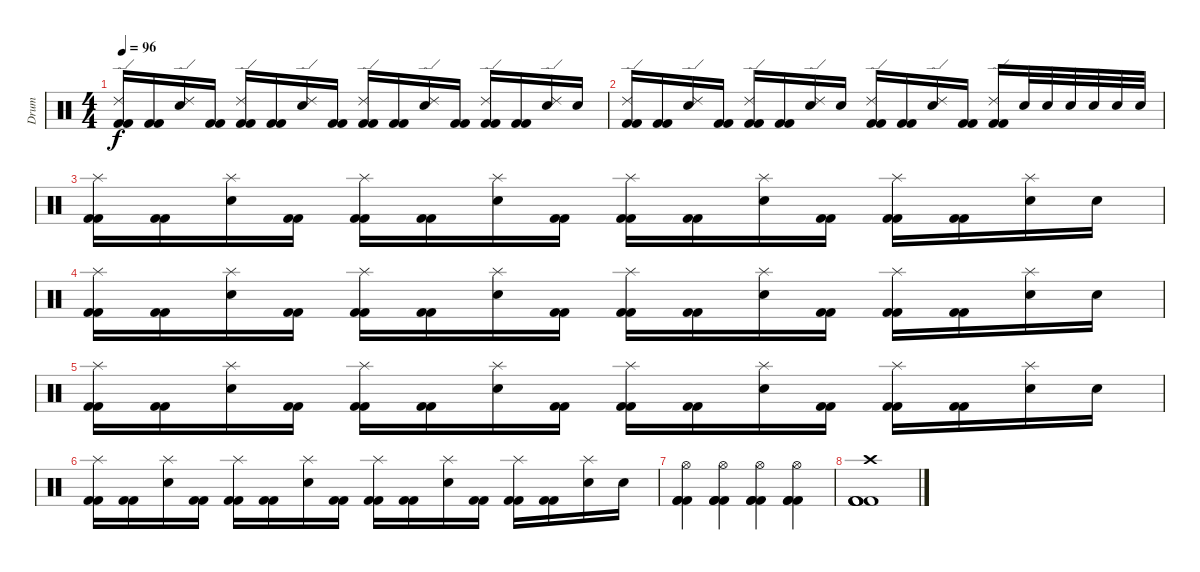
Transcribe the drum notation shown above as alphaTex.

\track ("Drum" "Drum") {instrument percussion}
\staff {score}
\articulation defaults
\ts (4 4)
\tempo 96
\clef neutral
\ks c
("Ride (edge) 2" "Kick (hit) 2" "Kick (hit) 2").16{dy f} ("Kick (hit) 2" "Kick (hit) 2").16 ("Ride (edge) 2" "Snare (hit) 2").16 ("Kick (hit) 2" "Kick (hit) 2").16 ("Ride (edge) 2" "Kick (hit) 2" "Kick (hit) 2").16 ("Kick (hit) 2" "Kick (hit) 2").16 ("Ride (edge) 2" "Snare (hit) 2").16 ("Kick (hit) 2" "Kick (hit) 2").16 ("Ride (edge) 2" "Kick (hit) 2" "Kick (hit) 2").16 ("Kick (hit) 2" "Kick (hit) 2").16 ("Ride (edge) 2" "Snare (hit) 2").16 ("Kick (hit) 2" "Kick (hit) 2").16 ("Ride (edge) 2" "Kick (hit) 2" "Kick (hit) 2").16 ("Kick (hit) 2" "Kick (hit) 2").16 ("Ride (edge) 2" "Snare (hit) 2").16 "Snare (hit) 2".16 |
("Ride (edge) 2" "Kick (hit) 2" "Kick (hit) 2").16 ("Kick (hit) 2" "Kick (hit) 2").16 ("Ride (edge) 2" "Snare (hit) 2").16 ("Kick (hit) 2" "Kick (hit) 2").16 ("Ride (edge) 2" "Kick (hit) 2" "Kick (hit) 2").16 ("Kick (hit) 2" "Kick (hit) 2").16 ("Ride (edge) 2" "Snare (hit) 2").16 "Snare (hit) 2".16 ("Ride (edge) 2" "Kick (hit) 2" "Kick (hit) 2").16 ("Kick (hit) 2" "Kick (hit) 2").16 ("Ride (edge) 2" "Snare (hit) 2").16 ("Kick (hit) 2" "Kick (hit) 2").16 ("Ride (edge) 2" "Kick (hit) 2" "Kick (hit) 2").16 "Snare (hit) 2".32 "Snare (hit) 2".32 "Snare (hit) 2".32 "Snare (hit) 2".32 "Snare (hit) 2".32 "Snare (hit) 2".32 |
("Splash (hit)" "Kick (hit) 2" "Kick (hit) 2").16 ("Kick (hit) 2" "Kick (hit) 2").16 ("Splash (hit)" "Snare (hit) 2").16 ("Kick (hit) 2" "Kick (hit) 2").16 ("Splash (hit)" "Kick (hit) 2" "Kick (hit) 2").16 ("Kick (hit) 2" "Kick (hit) 2").16 ("Splash (hit)" "Snare (hit) 2").16 ("Kick (hit) 2" "Kick (hit) 2").16 ("Splash (hit)" "Kick (hit) 2" "Kick (hit) 2").16 ("Kick (hit) 2" "Kick (hit) 2").16 ("Splash (hit)" "Snare (hit) 2").16 ("Kick (hit) 2" "Kick (hit) 2").16 ("Splash (hit)" "Kick (hit) 2" "Kick (hit) 2").16 ("Kick (hit) 2" "Kick (hit) 2").16 ("Splash (hit)" "Snare (hit) 2").16 "Snare (hit) 2".16 |
("Splash (hit)" "Kick (hit) 2" "Kick (hit) 2").16 ("Kick (hit) 2" "Kick (hit) 2").16 ("Splash (hit)" "Snare (hit) 2").16 ("Kick (hit) 2" "Kick (hit) 2").16 ("Splash (hit)" "Kick (hit) 2" "Kick (hit) 2").16 ("Kick (hit) 2" "Kick (hit) 2").16 ("Splash (hit)" "Snare (hit) 2").16 ("Kick (hit) 2" "Kick (hit) 2").16 ("Splash (hit)" "Kick (hit) 2" "Kick (hit) 2").16 ("Kick (hit) 2" "Kick (hit) 2").16 ("Splash (hit)" "Snare (hit) 2").16 ("Kick (hit) 2" "Kick (hit) 2").16 ("Splash (hit)" "Kick (hit) 2" "Kick (hit) 2").16 ("Kick (hit) 2" "Kick (hit) 2").16 ("Splash (hit)" "Snare (hit) 2").16 "Snare (hit) 2".16 |
("Splash (hit)" "Kick (hit) 2" "Kick (hit) 2").16 ("Kick (hit) 2" "Kick (hit) 2").16 ("Splash (hit)" "Snare (hit) 2").16 ("Kick (hit) 2" "Kick (hit) 2").16 ("Splash (hit)" "Kick (hit) 2" "Kick (hit) 2").16 ("Kick (hit) 2" "Kick (hit) 2").16 ("Splash (hit)" "Snare (hit) 2").16 ("Kick (hit) 2" "Kick (hit) 2").16 ("Splash (hit)" "Kick (hit) 2" "Kick (hit) 2").16 ("Kick (hit) 2" "Kick (hit) 2").16 ("Splash (hit)" "Snare (hit) 2").16 ("Kick (hit) 2" "Kick (hit) 2").16 ("Splash (hit)" "Kick (hit) 2" "Kick (hit) 2").16 ("Kick (hit) 2" "Kick (hit) 2").16 ("Splash (hit)" "Snare (hit) 2").16 "Snare (hit) 2".16 |
("Splash (hit)" "Kick (hit) 2" "Kick (hit) 2").16 ("Kick (hit) 2" "Kick (hit) 2").16 ("Splash (hit)" "Snare (hit) 2").16 ("Kick (hit) 2" "Kick (hit) 2").16 ("Splash (hit)" "Kick (hit) 2" "Kick (hit) 2").16 ("Kick (hit) 2" "Kick (hit) 2").16 ("Splash (hit)" "Snare (hit) 2").16 ("Kick (hit) 2" "Kick (hit) 2").16 ("Splash (hit)" "Kick (hit) 2" "Kick (hit) 2").16 ("Kick (hit) 2" "Kick (hit) 2").16 ("Splash (hit)" "Snare (hit) 2").16 ("Kick (hit) 2" "Kick (hit) 2").16 ("Splash (hit)" "Kick (hit) 2" "Kick (hit) 2").16 ("Kick (hit) 2" "Kick (hit) 2").16 ("Splash (hit)" "Snare (hit) 2").16 "Snare (hit) 2".16 |
("Hi-Hat (open)" "Kick (hit) 2" "Kick (hit) 2" "Kick (hit) 2").4 ("Hi-Hat (open)" "Kick (hit) 2" "Kick (hit) 2" "Kick (hit) 2").4 ("Hi-Hat (open)" "Kick (hit) 2" "Kick (hit) 2" "Kick (hit) 2").4 ("Hi-Hat (open)" "Kick (hit) 2" "Kick (hit) 2" "Kick (hit) 2").4 |
("Crash high (hit)" "Kick (hit) 2" "Kick (hit) 2" "Kick (hit) 2" "Kick (hit) 2").1
